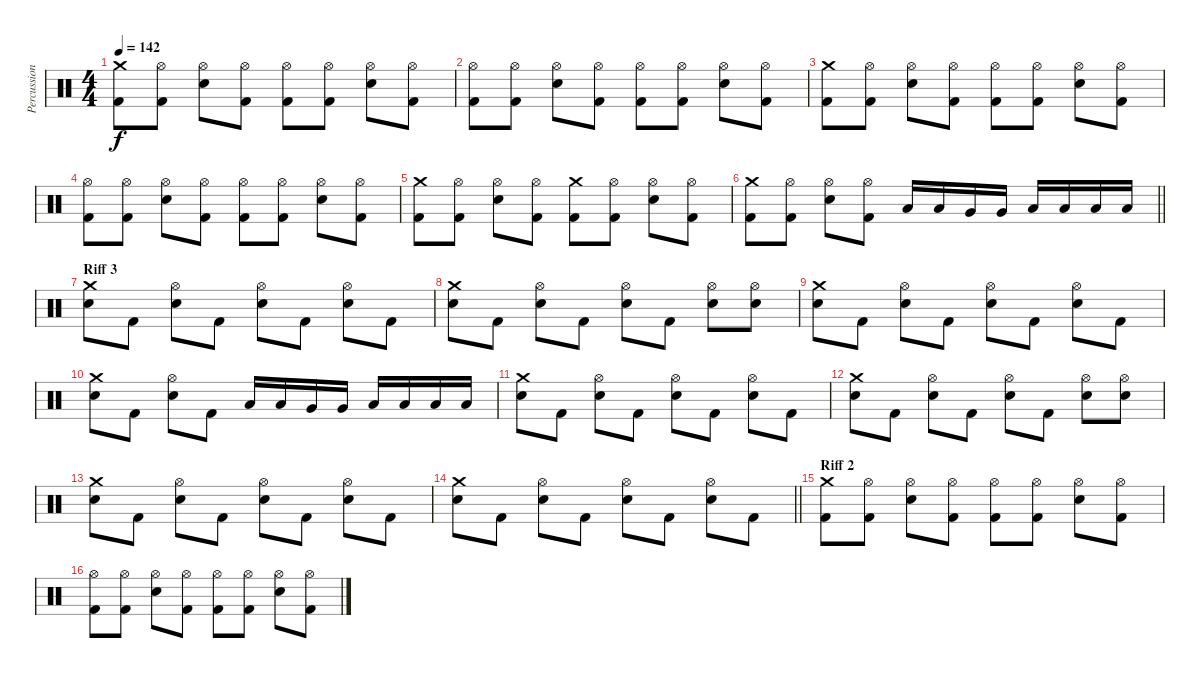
\track ("Percussions" "Percussion") {instrument percussion}
\staff {score}
\articulation defaults
\ts (4 4)
\tempo 142
\clef neutral
\ks c
("Crash medium (hit)" "Kick (hit) 2").8{dy f} ("Hi-Hat (open)" "Kick (hit) 2").8 ("Hi-Hat (open)" "Electric Snare (hit)").8 ("Hi-Hat (open)" "Kick (hit) 2").8 ("Hi-Hat (open)" "Kick (hit) 2").8 ("Hi-Hat (open)" "Kick (hit) 2").8 ("Hi-Hat (open)" "Electric Snare (hit)").8 ("Hi-Hat (open)" "Kick (hit) 2").8 |
("Hi-Hat (open)" "Kick (hit) 2").8 ("Hi-Hat (open)" "Kick (hit) 2").8 ("Hi-Hat (open)" "Electric Snare (hit)").8 ("Hi-Hat (open)" "Kick (hit) 2").8 ("Hi-Hat (open)" "Kick (hit) 2").8 ("Hi-Hat (open)" "Kick (hit) 2").8 ("Hi-Hat (open)" "Electric Snare (hit)").8 ("Hi-Hat (open)" "Kick (hit) 2").8 |
("Crash medium (hit)" "Kick (hit) 2").8 ("Hi-Hat (open)" "Kick (hit) 2").8 ("Hi-Hat (open)" "Electric Snare (hit)").8 ("Hi-Hat (open)" "Kick (hit) 2").8 ("Hi-Hat (open)" "Kick (hit) 2").8 ("Hi-Hat (open)" "Kick (hit) 2").8 ("Hi-Hat (open)" "Electric Snare (hit)").8 ("Hi-Hat (open)" "Kick (hit) 2").8 |
("Hi-Hat (open)" "Kick (hit) 2").8 ("Hi-Hat (open)" "Kick (hit) 2").8 ("Hi-Hat (open)" "Electric Snare (hit)").8 ("Hi-Hat (open)" "Kick (hit) 2").8 ("Hi-Hat (open)" "Kick (hit) 2").8 ("Hi-Hat (open)" "Kick (hit) 2").8 ("Hi-Hat (open)" "Electric Snare (hit)").8 ("Hi-Hat (open)" "Kick (hit) 2").8 |
("Crash medium (hit)" "Kick (hit) 2").8 ("Hi-Hat (open)" "Kick (hit) 2").8 ("Hi-Hat (open)" "Electric Snare (hit)").8 ("Hi-Hat (open)" "Kick (hit) 2").8 ("Crash medium (hit)" "Kick (hit) 2").8 ("Hi-Hat (open)" "Kick (hit) 2").8 ("Hi-Hat (open)" "Electric Snare (hit)").8 ("Hi-Hat (open)" "Kick (hit) 2").8 |
\barLineRight lightlight
("Crash medium (hit)" "Kick (hit) 2").8 ("Hi-Hat (open)" "Kick (hit) 2").8 ("Hi-Hat (open)" "Electric Snare (hit)").8 ("Hi-Hat (open)" "Kick (hit) 2").8 "Low Tom (hit)".16 "Low Tom (hit)".16 "Very Low Tom (hit)".16 "Very Low Tom (hit)".16 "Low Floor Tom (hit)".16 "Low Floor Tom (hit)".16 "Low Floor Tom (hit)".16 "Low Floor Tom (hit)".16 |
\section ("" "Riff 3")
("Crash medium (hit)" "Electric Snare (hit)").8 "Kick (hit) 2".8 ("Hi-Hat (open)" "Electric Snare (hit)").8 "Kick (hit) 2".8 ("Hi-Hat (open)" "Electric Snare (hit)").8 "Kick (hit) 2".8 ("Hi-Hat (open)" "Electric Snare (hit)").8 "Kick (hit) 2".8 |
("Crash medium (hit)" "Electric Snare (hit)").8 "Kick (hit) 2".8 ("Hi-Hat (open)" "Electric Snare (hit)").8 "Kick (hit) 2".8 ("Hi-Hat (open)" "Electric Snare (hit)").8 "Kick (hit) 2".8 ("Hi-Hat (open)" "Electric Snare (hit)").8 ("Hi-Hat (open)" "Electric Snare (hit)").8 |
("Crash medium (hit)" "Electric Snare (hit)").8 "Kick (hit) 2".8 ("Hi-Hat (open)" "Electric Snare (hit)").8 "Kick (hit) 2".8 ("Hi-Hat (open)" "Electric Snare (hit)").8 "Kick (hit) 2".8 ("Hi-Hat (open)" "Electric Snare (hit)").8 "Kick (hit) 2".8 |
("Crash medium (hit)" "Electric Snare (hit)").8 "Kick (hit) 2".8 ("Hi-Hat (open)" "Electric Snare (hit)").8 "Kick (hit) 2".8 "Low Tom (hit)".16 "Low Tom (hit)".16 "Very Low Tom (hit)".16 "Very Low Tom (hit)".16 "Low Floor Tom (hit)".16 "Low Floor Tom (hit)".16 "Low Floor Tom (hit)".16 "Low Floor Tom (hit)".16 |
("Crash medium (hit)" "Electric Snare (hit)").8 "Kick (hit) 2".8 ("Hi-Hat (open)" "Electric Snare (hit)").8 "Kick (hit) 2".8 ("Hi-Hat (open)" "Electric Snare (hit)").8 "Kick (hit) 2".8 ("Hi-Hat (open)" "Electric Snare (hit)").8 "Kick (hit) 2".8 |
("Crash medium (hit)" "Electric Snare (hit)").8 "Kick (hit) 2".8 ("Hi-Hat (open)" "Electric Snare (hit)").8 "Kick (hit) 2".8 ("Hi-Hat (open)" "Electric Snare (hit)").8 "Kick (hit) 2".8 ("Hi-Hat (open)" "Electric Snare (hit)").8 ("Hi-Hat (open)" "Electric Snare (hit)").8 |
("Crash medium (hit)" "Electric Snare (hit)").8 "Kick (hit) 2".8 ("Hi-Hat (open)" "Electric Snare (hit)").8 "Kick (hit) 2".8 ("Hi-Hat (open)" "Electric Snare (hit)").8 "Kick (hit) 2".8 ("Hi-Hat (open)" "Electric Snare (hit)").8 "Kick (hit) 2".8 |
\barLineRight lightlight
("Crash medium (hit)" "Electric Snare (hit)").8 "Kick (hit) 2".8 ("Hi-Hat (open)" "Electric Snare (hit)").8 "Kick (hit) 2".8 ("Hi-Hat (open)" "Electric Snare (hit)").8 "Kick (hit) 2".8 ("Hi-Hat (open)" "Electric Snare (hit)").8 "Kick (hit) 2".8 |
\section ("" "Riff 2")
("Crash medium (hit)" "Kick (hit) 2").8 ("Hi-Hat (open)" "Kick (hit) 2").8 ("Hi-Hat (open)" "Electric Snare (hit)").8 ("Hi-Hat (open)" "Kick (hit) 2").8 ("Hi-Hat (open)" "Kick (hit) 2").8 ("Hi-Hat (open)" "Kick (hit) 2").8 ("Hi-Hat (open)" "Electric Snare (hit)").8 ("Hi-Hat (open)" "Kick (hit) 2").8 |
("Hi-Hat (open)" "Kick (hit) 2").8 ("Hi-Hat (open)" "Kick (hit) 2").8 ("Hi-Hat (open)" "Electric Snare (hit)").8 ("Hi-Hat (open)" "Kick (hit) 2").8 ("Hi-Hat (open)" "Kick (hit) 2").8 ("Hi-Hat (open)" "Kick (hit) 2").8 ("Hi-Hat (open)" "Electric Snare (hit)").8 ("Hi-Hat (open)" "Kick (hit) 2").8
